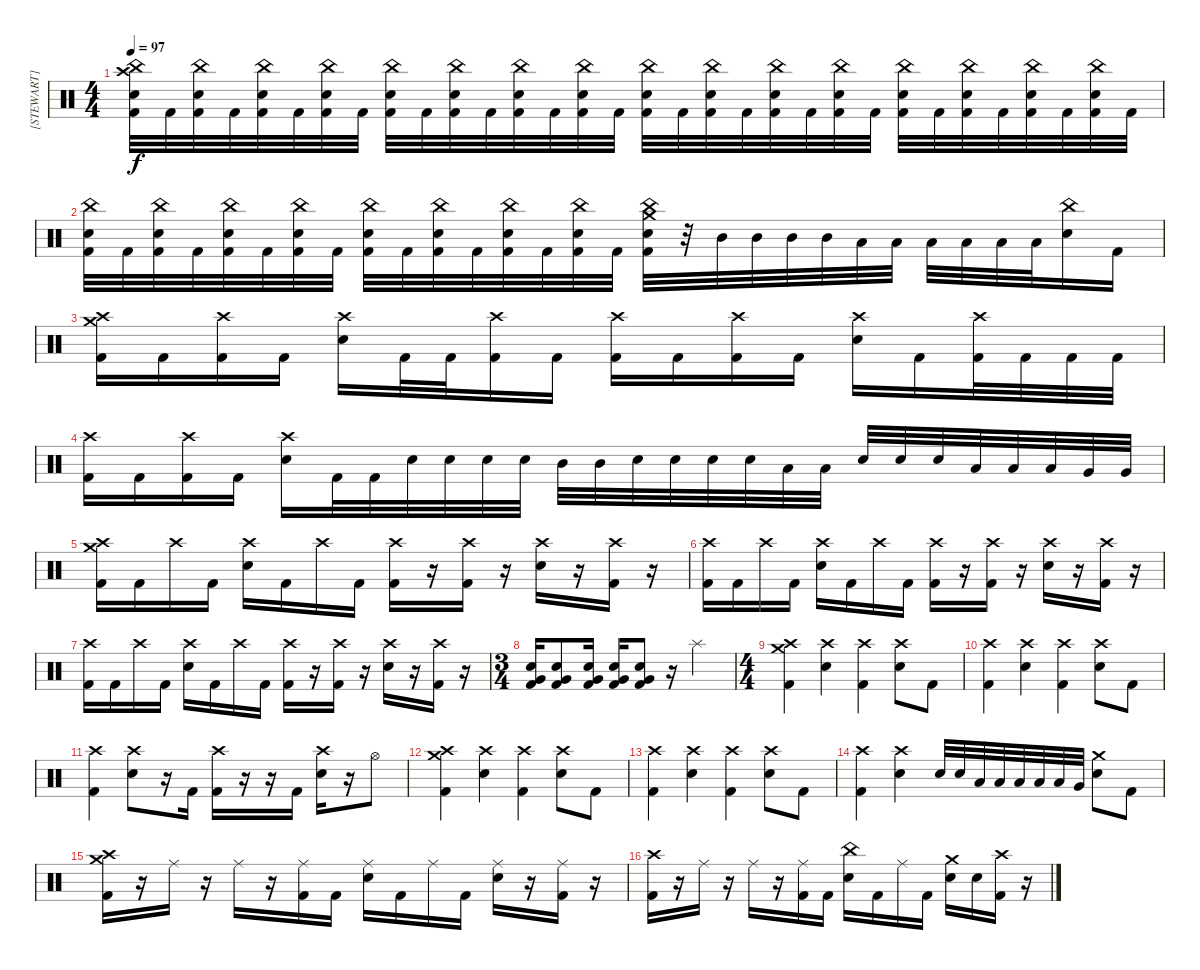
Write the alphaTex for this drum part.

\track ("[STEWART]" "[STEWART]") {instrument percussion}
\staff {score}
\articulation defaults
\ts (4 4)
\tempo 97
\clef neutral
\ks c
("China (hit)" "Crash high (hit)" "Electric Snare (hit)" "Kick (hit) 2").32{dy f} "Kick (hit) 2".32 ("China (hit)" "Electric Snare (hit)" "Kick (hit) 2").32 "Kick (hit) 2".32 ("China (hit)" "Electric Snare (hit)" "Kick (hit) 2").32 "Kick (hit) 2".32 ("China (hit)" "Electric Snare (hit)" "Kick (hit) 2").32 "Kick (hit) 2".32 ("China (hit)" "Electric Snare (hit)" "Kick (hit) 2").32 "Kick (hit) 2".32 ("China (hit)" "Electric Snare (hit)" "Kick (hit) 2").32 "Kick (hit) 2".32 ("China (hit)" "Electric Snare (hit)" "Kick (hit) 2").32 "Kick (hit) 2".32 ("China (hit)" "Electric Snare (hit)" "Kick (hit) 2").32 "Kick (hit) 2".32 ("China (hit)" "Electric Snare (hit)" "Kick (hit) 2").32 "Kick (hit) 2".32 ("China (hit)" "Electric Snare (hit)" "Kick (hit) 2").32 "Kick (hit) 2".32 ("China (hit)" "Electric Snare (hit)" "Kick (hit) 2").32 "Kick (hit) 2".32 ("China (hit)" "Electric Snare (hit)" "Kick (hit) 2").32 "Kick (hit) 2".32 ("China (hit)" "Electric Snare (hit)" "Kick (hit) 2").32 "Kick (hit) 2".32 ("China (hit)" "Electric Snare (hit)" "Kick (hit) 2").32 "Kick (hit) 2".32 ("China (hit)" "Electric Snare (hit)" "Kick (hit) 2").32 "Kick (hit) 2".32 ("China (hit)" "Electric Snare (hit)" "Kick (hit) 2").32 "Kick (hit) 2".32 |
("China (hit)" "Electric Snare (hit)" "Kick (hit) 2").32 "Kick (hit) 2".32 ("China (hit)" "Electric Snare (hit)" "Kick (hit) 2").32 "Kick (hit) 2".32 ("China (hit)" "Electric Snare (hit)" "Kick (hit) 2").32 "Kick (hit) 2".32 ("China (hit)" "Electric Snare (hit)" "Kick (hit) 2").32 "Kick (hit) 2".32 ("China (hit)" "Electric Snare (hit)" "Kick (hit) 2").32 "Kick (hit) 2".32 ("China (hit)" "Electric Snare (hit)" "Kick (hit) 2").32 "Kick (hit) 2".32 ("China (hit)" "Electric Snare (hit)" "Kick (hit) 2").32 "Kick (hit) 2".32 ("China (hit)" "Electric Snare (hit)" "Kick (hit) 2").32 "Kick (hit) 2".32 ("China (hit)" "Crash medium (hit)" "Electric Snare (hit)" "Kick (hit) 2").32 r.32 "Mid Tom (hit)".32 "Mid Tom (hit)".32 "Mid Tom (hit)".32 "Mid Tom (hit)".32 "Low Tom (hit)".32 "Low Tom (hit)".32 "Low Tom (hit)".32 "Low Tom (hit)".32 "Low Tom (hit)".32 "Low Tom (hit)".32 ("China (hit)" "Electric Snare (hit)").16 "Kick (hit) 2".16 |
("Crash high (hit)" "Crash medium (hit)" "Kick (hit) 2").16 "Kick (hit) 2".16 ("Crash high (hit)" "Kick (hit) 2").16 "Kick (hit) 2".16 ("Crash high (hit)" "Electric Snare (hit)").16 "Kick (hit) 2".32 "Kick (hit) 2".32 ("Crash high (hit)" "Kick (hit) 2").16 "Kick (hit) 2".16 ("Crash high (hit)" "Kick (hit) 2").16 "Kick (hit) 2".16 ("Crash high (hit)" "Kick (hit) 2").16 "Kick (hit) 2".16 ("Crash high (hit)" "Electric Snare (hit)").16 "Kick (hit) 2".16 ("Crash high (hit)" "Kick (hit) 2").32 "Kick (hit) 2".32 "Kick (hit) 2".32 "Kick (hit) 2".32 |
("Crash high (hit)" "Kick (hit) 2").16 "Kick (hit) 2".16 ("Crash high (hit)" "Kick (hit) 2").16 "Kick (hit) 2".16 ("Crash high (hit)" "Electric Snare (hit)").16 "Kick (hit) 2".32 "Kick (hit) 2".32 "Electric Snare (hit)".32 "Electric Snare (hit)".32 "Electric Snare (hit)".32 "Electric Snare (hit)".32 "Mid Tom (hit)".32 "Mid Tom (hit)".32 "Electric Snare (hit)".32 "Electric Snare (hit)".32 "Electric Snare (hit)".32 "Electric Snare (hit)".32 "Low Tom (hit)".32 "Low Tom (hit)".32 "Electric Snare (hit)".32 "Electric Snare (hit)".32 "Electric Snare (hit)".32 "Low Tom (hit)".32 "Low Tom (hit)".32 "Low Tom (hit)".32 "Very Low Tom (hit)".32 "Very Low Tom (hit)".32 |
("Crash high (hit)" "Crash medium (hit)" "Kick (hit) 2").16 "Kick (hit) 2".16 "Crash high (hit)".16 "Kick (hit) 2".16 ("Crash high (hit)" "Electric Snare (hit)").16 "Kick (hit) 2".16 "Crash high (hit)".16 "Kick (hit) 2".16 ("Crash high (hit)" "Kick (hit) 2").16 r.16 ("Crash high (hit)" "Kick (hit) 2").16 r.16 ("Crash high (hit)" "Electric Snare (hit)").16 r.16 ("Crash high (hit)" "Kick (hit) 2").16 r.16 |
("Crash high (hit)" "Kick (hit) 2").16 "Kick (hit) 2".16 "Crash high (hit)".16 "Kick (hit) 2".16 ("Crash high (hit)" "Electric Snare (hit)").16 "Kick (hit) 2".16 "Crash high (hit)".16 "Kick (hit) 2".16 ("Crash high (hit)" "Kick (hit) 2").16 r.16 ("Crash high (hit)" "Kick (hit) 2").16 r.16 ("Crash high (hit)" "Electric Snare (hit)").16 r.16 ("Crash high (hit)" "Kick (hit) 2").16 r.16 |
("Crash high (hit)" "Kick (hit) 2").16 "Kick (hit) 2".16 "Crash high (hit)".16 "Kick (hit) 2".16 ("Crash high (hit)" "Electric Snare (hit)").16 "Kick (hit) 2".16 "Crash high (hit)".16 "Kick (hit) 2".16 ("Crash high (hit)" "Kick (hit) 2").16 r.16 ("Crash high (hit)" "Kick (hit) 2").16 r.16 ("Crash high (hit)" "Electric Snare (hit)").16 r.16 ("Crash high (hit)" "Kick (hit) 2").16 r.16 |
\ts (3 4)
("Very Low Tom (hit)" "Electric Snare (hit)" "Kick (hit) 2").16 ("Very Low Tom (hit)" "Electric Snare (hit)" "Kick (hit) 2").8 ("Very Low Tom (hit)" "Electric Snare (hit)" "Kick (hit) 2").16 ("Very Low Tom (hit)" "Electric Snare (hit)" "Kick (hit) 2").16 ("Very Low Tom (hit)" "Electric Snare (hit)" "Kick (hit) 2").8 r.16 "Splash (hit)".4 |
\ts (4 4)
("Crash high (hit)" "Crash medium (hit)" "Kick (hit) 2").4 ("Crash high (hit)" "Electric Snare (hit)").4 ("Crash high (hit)" "Kick (hit) 2").4 ("Crash high (hit)" "Electric Snare (hit)").8 "Kick (hit) 2".8 |
("Crash high (hit)" "Kick (hit) 2").4 ("Crash high (hit)" "Electric Snare (hit)").4 ("Crash high (hit)" "Kick (hit) 2").4 ("Crash high (hit)" "Electric Snare (hit)").8 "Kick (hit) 2".8 |
("Crash high (hit)" "Kick (hit) 2").4 ("Crash high (hit)" "Electric Snare (hit)").8 r.16 "Kick (hit) 2".16 ("Crash high (hit)" "Kick (hit) 2").16 r.16 r.16 "Kick (hit) 2".16 ("Crash high (hit)" "Electric Snare (hit)").16 r.16 "Hi-Hat (open)".8 |
("Crash high (hit)" "Crash medium (hit)" "Kick (hit) 2").4 ("Crash high (hit)" "Electric Snare (hit)").4 ("Crash high (hit)" "Kick (hit) 2").4 ("Crash high (hit)" "Electric Snare (hit)").8 "Kick (hit) 2".8 |
("Crash high (hit)" "Kick (hit) 2").4 ("Crash high (hit)" "Electric Snare (hit)").4 ("Crash high (hit)" "Kick (hit) 2").4 ("Crash high (hit)" "Electric Snare (hit)").8 "Kick (hit) 2".8 |
("Crash high (hit)" "Kick (hit) 2").4 ("Crash high (hit)" "Electric Snare (hit)").4 "Electric Snare (hit)".32 "Electric Snare (hit)".32 "Low Tom (hit)".32 "Low Tom (hit)".32 "Low Tom (hit)".32 "Low Tom (hit)".32 "Low Tom (hit)".32 "Very Low Tom (hit)".32 ("Crash medium (hit)" "Electric Snare (hit)").8 "Kick (hit) 2".8 |
("Crash high (hit)" "Crash medium (hit)" "Kick (hit) 2").16 r.16 "Ride (middle)".16 r.16 "Ride (middle)".16 r.16 ("Ride (middle)" "Kick (hit) 2").16 "Kick (hit) 2".16 ("Ride (middle)" "Electric Snare (hit)").16 "Kick (hit) 2".16 "Ride (middle)".16 "Kick (hit) 2".16 ("Ride (middle)" "Electric Snare (hit)").16 r.16 ("Ride (middle)" "Kick (hit) 2").16 r.16 |
("Crash high (hit)" "Kick (hit) 2").16 r.16 "Ride (middle)".16 r.16 "Ride (middle)".16 r.16 ("Ride (middle)" "Kick (hit) 2").16 "Kick (hit) 2".16 ("China (hit)" "Electric Snare (hit)").16 "Kick (hit) 2".16 "Ride (middle)".16 "Kick (hit) 2".16 ("Crash medium (hit)" "Electric Snare (hit)").16 "Electric Snare (hit)".16 ("Crash high (hit)" "Kick (hit) 2").16 r.16
